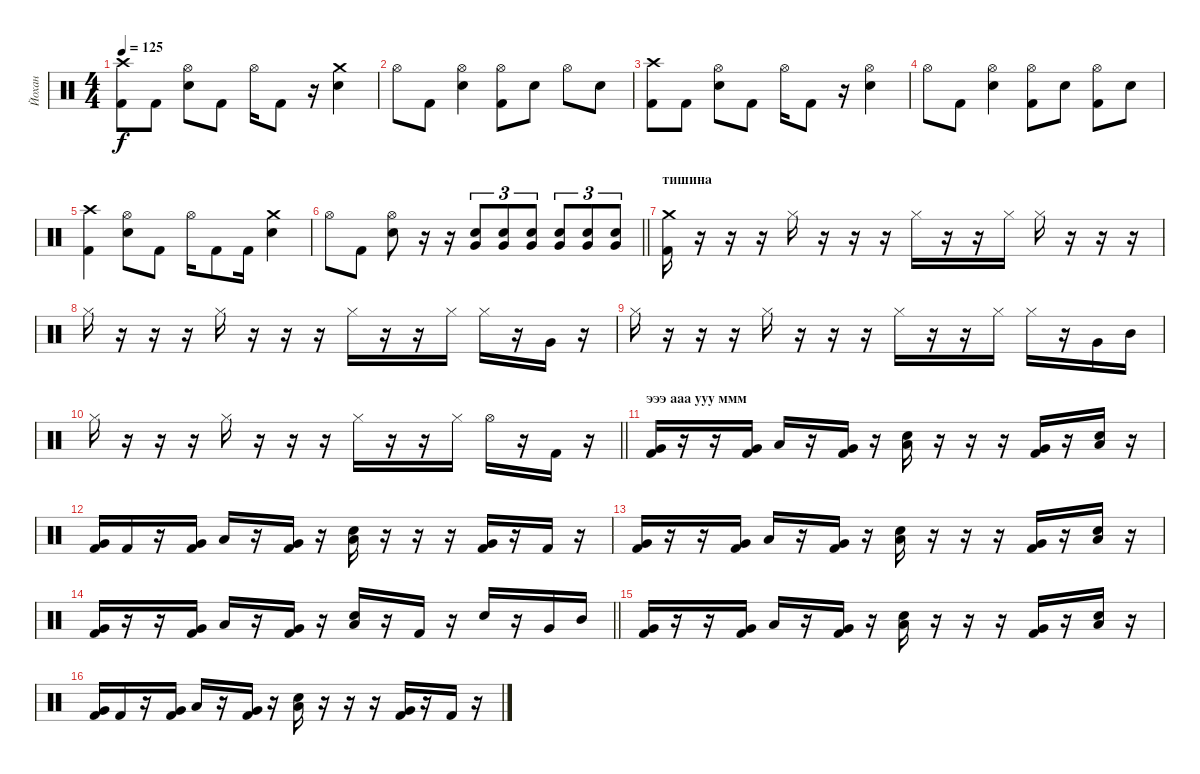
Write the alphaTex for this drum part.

\track ("Йохан" "Йохан") {instrument percussion}
\staff {score}
\articulation defaults
\ts (4 4)
\tempo 125
\clef neutral
\ks c
("Crash high (hit)" "Kick (hit) 2").8{dy f} "Kick (hit) 2".8 ("Hi-Hat (open)" "Snare (hit) 2").8 "Kick (hit) 2".8 "Hi-Hat (open)".16 "Kick (hit) 2".8 r.16 ("Crash medium (hit)" "Snare (hit) 2").4 |
"Hi-Hat (open)".8 "Kick (hit) 2".8 ("Hi-Hat (open)" "Snare (hit) 2").4 ("Hi-Hat (open)" "Kick (hit) 2").8 "Snare (hit) 2".8 "Hi-Hat (open)".8 "Snare (hit) 2".8 |
("Crash high (hit)" "Kick (hit) 2").8 "Kick (hit) 2".8 ("Hi-Hat (open)" "Snare (hit) 2").8 "Kick (hit) 2".8 "Hi-Hat (open)".16 "Kick (hit) 2".8 r.16 ("Hi-Hat (open)" "Snare (hit) 2").4 |
"Hi-Hat (open)".8 "Kick (hit) 2".8 ("Hi-Hat (open)" "Snare (hit) 2").4 ("Hi-Hat (open)" "Kick (hit) 2").8 "Snare (hit) 2".8 ("Hi-Hat (open)" "Kick (hit) 2").8 "Snare (hit) 2".8 |
("Crash high (hit)" "Kick (hit) 2").4 ("Hi-Hat (open)" "Snare (hit) 2").8 "Kick (hit) 2".8 "Hi-Hat (open)".16 "Kick (hit) 2".8 "Kick (hit) 2".16 ("Crash medium (hit)" "Snare (hit) 2").4 |
\barLineRight lightlight "Hi-Hat (open)".8 "Kick (hit) 2".8
("Hi-Hat (open)" "Snare (hit) 2").8 r.16 r.16 ("Very Low Tom (hit)" "Snare (hit) 2").8{tu (3 2)} ("Very Low Tom (hit)" "Snare (hit) 2").8{tu (3 2)} ("Very Low Tom (hit)" "Snare (hit) 2").8{tu (3 2)} ("Very Low Tom (hit)" "Snare (hit) 2").8{tu (3 2)} ("Very Low Tom (hit)" "Snare (hit) 2").8{tu (3 2)} ("Very Low Tom (hit)" "Snare (hit) 2").8{tu (3 2)} |
\section ("" "тишина")
("Crash medium (hit)" "Kick (hit) 2").16 r.16 r.16 r.16 "Hi-Hat (closed)".16 r.16 r.16 r.16 "Hi-Hat (closed)".16 r.16 r.16 "Hi-Hat (closed)".16 "Hi-Hat (closed)".16 r.16 r.16 r.16 |
"Hi-Hat (closed)".16 r.16 r.16 r.16 "Hi-Hat (closed)".16 r.16 r.16 r.16 "Hi-Hat (closed)".16 r.16 r.16 "Hi-Hat (closed)".16 "Hi-Hat (closed)".16 r.16 "Very Low Tom (hit)".16 r.16 |
"Hi-Hat (closed)".16 r.16 r.16 r.16 "Hi-Hat (closed)".16 r.16 r.16 r.16 "Hi-Hat (closed)".16 r.16 r.16 "Hi-Hat (closed)".16 "Hi-Hat (closed)".16 r.16 "Very Low Tom (hit)".16 "Mid Tom (hit)".16 |
\barLineRight lightlight "Hi-Hat (closed)".16
r.16 r.16 r.16 "Hi-Hat (closed)".16 r.16 r.16 r.16 "Hi-Hat (closed)".16 r.16 r.16 "Hi-Hat (closed)".16 "Hi-Hat (open)".16 r.16 "Kick (hit) 2".16 r.16 |
\section ("" "эээ ааа ууу ммм")
("Very Low Tom (hit)" "Kick (hit) 2").16 r.16 r.16 ("Very Low Tom (hit)" "Kick (hit) 2").16 "Low Tom (hit)".16 r.16 ("Very Low Tom (hit)" "Kick (hit) 2").16 r.16 ("Low Tom (hit)" "Snare (hit) 2").16 r.16 r.16 r.16 ("Very Low Tom (hit)" "Kick (hit) 2").16 r.16 ("Low Tom (hit)" "Snare (hit) 2").16 r.16 |
("Very Low Tom (hit)" "Kick (hit) 2").16 "Kick (hit) 2".16 r.16 ("Very Low Tom (hit)" "Kick (hit) 2").16 "Low Tom (hit)".16 r.16 ("Very Low Tom (hit)" "Kick (hit) 2").16 r.16 ("Low Tom (hit)" "Snare (hit) 2").16 r.16 r.16 r.16 ("Very Low Tom (hit)" "Kick (hit) 2").16 r.16 "Kick (hit) 2".16 r.16 |
("Very Low Tom (hit)" "Kick (hit) 2").16 r.16 r.16 ("Very Low Tom (hit)" "Kick (hit) 2").16 "Low Tom (hit)".16 r.16 ("Very Low Tom (hit)" "Kick (hit) 2").16 r.16 ("Low Tom (hit)" "Snare (hit) 2").16 r.16 r.16 r.16 ("Very Low Tom (hit)" "Kick (hit) 2").16 r.16 ("Low Tom (hit)" "Snare (hit) 2").16 r.16 |
\barLineRight lightlight
("Very Low Tom (hit)" "Kick (hit) 2").16 r.16 r.16 ("Very Low Tom (hit)" "Kick (hit) 2").16 "Low Tom (hit)".16 r.16 ("Very Low Tom (hit)" "Kick (hit) 2").16 r.16 ("Low Tom (hit)" "Snare (hit) 2").16 r.16 "Kick (hit) 2".16 r.16 "Snare (hit) 2".16 r.16 "Very Low Tom (hit)".16 "Mid Tom (hit)".16 |
("Very Low Tom (hit)" "Kick (hit) 2").16 r.16 r.16 ("Very Low Tom (hit)" "Kick (hit) 2").16 "Low Tom (hit)".16 r.16 ("Very Low Tom (hit)" "Kick (hit) 2").16 r.16 ("Low Tom (hit)" "Snare (hit) 2").16 r.16 r.16 r.16 ("Very Low Tom (hit)" "Kick (hit) 2").16 r.16 ("Low Tom (hit)" "Snare (hit) 2").16 r.16 |
("Very Low Tom (hit)" "Kick (hit) 2").16 "Kick (hit) 2".16 r.16 ("Very Low Tom (hit)" "Kick (hit) 2").16 "Low Tom (hit)".16 r.16 ("Very Low Tom (hit)" "Kick (hit) 2").16 r.16 ("Low Tom (hit)" "Snare (hit) 2").16 r.16 r.16 r.16 ("Very Low Tom (hit)" "Kick (hit) 2").16 r.16 "Kick (hit) 2".16 r.16
